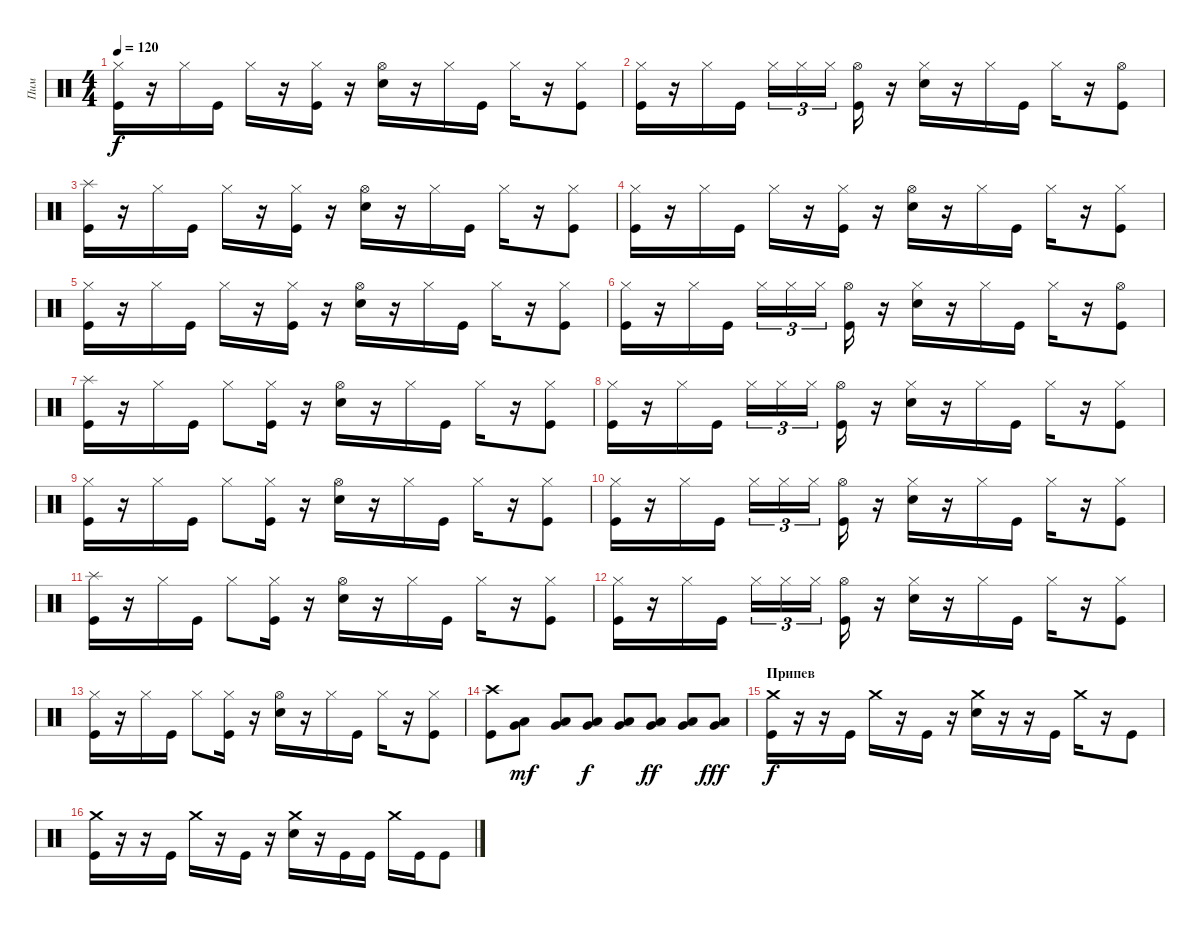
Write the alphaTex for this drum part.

\track ("Пим" "Пим") {instrument percussion}
\staff {score}
\articulation defaults
\ts (4 4)
\tempo 120
\clef neutral
\ks c
("Hi-Hat (closed)" "Kick (hit)").16{dy f} r.16 "Hi-Hat (closed)".16 "Kick (hit)".16 "Hi-Hat (closed)".16 r.16 ("Hi-Hat (closed)" "Kick (hit)").16 r.16 ("Hi-Hat (open)" "Snare (hit) 2").16 r.16 "Hi-Hat (closed)".16 "Kick (hit)".16 "Hi-Hat (closed)".16 r.16 ("Hi-Hat (closed)" "Kick (hit)").8 |
("Hi-Hat (closed)" "Kick (hit)").16 r.16 "Hi-Hat (closed)".16 "Kick (hit)".16 "Hi-Hat (closed)".16{tu (3 2)} "Hi-Hat (closed)".16{tu (3 2)} "Hi-Hat (closed)".16{tu (3 2)} ("Hi-Hat (open)" "Kick (hit)").16 r.16 ("Hi-Hat (closed)" "Snare (hit) 2").16 r.16 "Hi-Hat (closed)".16 "Kick (hit)".16 "Hi-Hat (closed)".16 r.16 ("Hi-Hat (open)" "Kick (hit)").8 |
("Splash (hit)" "Kick (hit)").16 r.16 "Hi-Hat (closed)".16 "Kick (hit)".16 "Hi-Hat (closed)".16 r.16 ("Hi-Hat (closed)" "Kick (hit)").16 r.16 ("Hi-Hat (open)" "Snare (hit) 2").16 r.16 "Hi-Hat (closed)".16 "Kick (hit)".16 "Hi-Hat (closed)".16 r.16 ("Hi-Hat (closed)" "Kick (hit)").8 |
("Hi-Hat (closed)" "Kick (hit)").16 r.16 "Hi-Hat (closed)".16 "Kick (hit)".16 "Hi-Hat (closed)".16 r.16 ("Hi-Hat (closed)" "Kick (hit)").16 r.16 ("Hi-Hat (open)" "Snare (hit) 2").16 r.16 "Hi-Hat (closed)".16 "Kick (hit)".16 "Hi-Hat (closed)".16 r.16 ("Hi-Hat (closed)" "Kick (hit)").8 |
("Hi-Hat (closed)" "Kick (hit)").16 r.16 "Hi-Hat (closed)".16 "Kick (hit)".16 "Hi-Hat (closed)".16 r.16 ("Hi-Hat (closed)" "Kick (hit)").16 r.16 ("Hi-Hat (open)" "Snare (hit) 2").16 r.16 "Hi-Hat (closed)".16 "Kick (hit)".16 "Hi-Hat (closed)".16 r.16 ("Hi-Hat (closed)" "Kick (hit)").8 |
("Hi-Hat (closed)" "Kick (hit)").16 r.16 "Hi-Hat (closed)".16 "Kick (hit)".16 "Hi-Hat (closed)".16{tu (3 2)} "Hi-Hat (closed)".16{tu (3 2)} "Hi-Hat (closed)".16{tu (3 2)} ("Hi-Hat (open)" "Kick (hit)").16 r.16 ("Hi-Hat (closed)" "Snare (hit) 2").16 r.16 "Hi-Hat (closed)".16 "Kick (hit)".16 "Hi-Hat (closed)".16 r.16 ("Hi-Hat (open)" "Kick (hit)").8 |
("Splash (hit)" "Kick (hit)").16 r.16 "Hi-Hat (closed)".16 "Kick (hit)".16 "Hi-Hat (closed)".8 ("Hi-Hat (closed)" "Kick (hit)").16 r.16 ("Hi-Hat (open)" "Snare (hit) 2").16 r.16 "Hi-Hat (closed)".16 "Kick (hit)".16 "Hi-Hat (closed)".16 r.16 ("Hi-Hat (closed)" "Kick (hit)").8 |
("Hi-Hat (closed)" "Kick (hit)").16 r.16 "Hi-Hat (closed)".16 "Kick (hit)".16 "Hi-Hat (closed)".16{tu (3 2)} "Hi-Hat (closed)".16{tu (3 2)} "Hi-Hat (closed)".16{tu (3 2)} ("Hi-Hat (open)" "Kick (hit)").16 r.16 ("Hi-Hat (closed)" "Snare (hit) 2").16 r.16 "Hi-Hat (closed)".16 "Kick (hit)".16 "Hi-Hat (closed)".16 r.16 ("Hi-Hat (closed)" "Kick (hit)").8 |
("Hi-Hat (closed)" "Kick (hit)").16 r.16 "Hi-Hat (closed)".16 "Kick (hit)".16 "Hi-Hat (closed)".8 ("Hi-Hat (closed)" "Kick (hit)").16 r.16 ("Hi-Hat (open)" "Snare (hit) 2").16 r.16 "Hi-Hat (closed)".16 "Kick (hit)".16 "Hi-Hat (closed)".16 r.16 ("Hi-Hat (closed)" "Kick (hit)").8 |
("Hi-Hat (closed)" "Kick (hit)").16 r.16 "Hi-Hat (closed)".16 "Kick (hit)".16 "Hi-Hat (closed)".16{tu (3 2)} "Hi-Hat (closed)".16{tu (3 2)} "Hi-Hat (closed)".16{tu (3 2)} ("Hi-Hat (open)" "Kick (hit)").16 r.16 ("Hi-Hat (closed)" "Snare (hit) 2").16 r.16 "Hi-Hat (closed)".16 "Kick (hit)".16 "Hi-Hat (closed)".16 r.16 ("Hi-Hat (closed)" "Kick (hit)").8 |
("Splash (hit)" "Kick (hit)").16 r.16 "Hi-Hat (closed)".16 "Kick (hit)".16 "Hi-Hat (closed)".8 ("Hi-Hat (closed)" "Kick (hit)").16 r.16 ("Hi-Hat (open)" "Snare (hit) 2").16 r.16 "Hi-Hat (closed)".16 "Kick (hit)".16 "Hi-Hat (closed)".16 r.16 ("Hi-Hat (closed)" "Kick (hit)").8 |
("Hi-Hat (closed)" "Kick (hit)").16 r.16 "Hi-Hat (closed)".16 "Kick (hit)".16 "Hi-Hat (closed)".16{tu (3 2)} "Hi-Hat (closed)".16{tu (3 2)} "Hi-Hat (closed)".16{tu (3 2)} ("Hi-Hat (open)" "Kick (hit)").16 r.16 ("Hi-Hat (closed)" "Snare (hit) 2").16 r.16 "Hi-Hat (closed)".16 "Kick (hit)".16 "Hi-Hat (closed)".16 r.16 ("Hi-Hat (closed)" "Kick (hit)").8 |
("Hi-Hat (closed)" "Kick (hit)").16 r.16 "Hi-Hat (closed)".16 "Kick (hit)".16 "Hi-Hat (closed)".8 ("Hi-Hat (closed)" "Kick (hit)").16 r.16 ("Hi-Hat (open)" "Snare (hit) 2").16 r.16 "Hi-Hat (closed)".16 "Kick (hit)".16 "Hi-Hat (closed)".16 r.16 ("Hi-Hat (closed)" "Kick (hit)").8 |
("Crash high (hit)" "Kick (hit)").8 ("Very Low Tom (hit)" "Low Floor Tom (hit)").8{dy mf} ("Very Low Tom (hit)" "Low Floor Tom (hit)").8 ("Very Low Tom (hit)" "Low Floor Tom (hit)").8{dy f} ("Very Low Tom (hit)" "Low Floor Tom (hit)").8 ("Very Low Tom (hit)" "Low Floor Tom (hit)").8{dy ff} ("Very Low Tom (hit)" "Low Floor Tom (hit)").8 ("Very Low Tom (hit)" "Low Floor Tom (hit)").8{dy fff} |
\section ("" "Припев")
("Crash medium (hit)" "Kick (hit)").16{dy f} r.16 r.16 "Kick (hit)".16 "Crash medium (hit)".16 r.16 "Kick (hit)".16 r.16 ("Crash medium (hit)" "Snare (hit) 2").16 r.16 r.16 "Kick (hit)".16 "Crash medium (hit)".16 r.16 "Kick (hit)".8 |
("Crash medium (hit)" "Kick (hit)").16 r.16 r.16 "Kick (hit)".16 "Crash medium (hit)".16 r.16 "Kick (hit)".16 r.16 ("Crash medium (hit)" "Snare (hit) 2").16 r.16 "Kick (hit)".16 "Kick (hit)".16 "Crash medium (hit)".16 "Kick (hit)".16 "Kick (hit)".8
